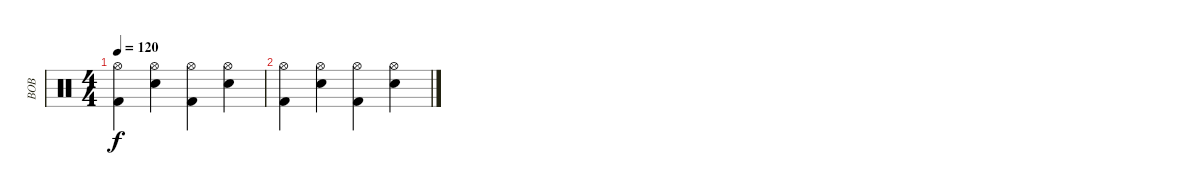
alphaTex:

\track ("BOB" "BOB") {instrument percussion}
\staff {score}
\articulation defaults
\ts (4 4)
\tempo 120
\clef neutral
\ks c
("Hi-Hat (open)" "Kick (hit) 2").4{dy f} ("Hi-Hat (open)" "Electric Snare (hit)").4 ("Hi-Hat (open)" "Kick (hit) 2").4 ("Hi-Hat (open)" "Electric Snare (hit)").4 |
("Hi-Hat (open)" "Kick (hit) 2").4 ("Hi-Hat (open)" "Electric Snare (hit)").4 ("Hi-Hat (open)" "Kick (hit) 2").4 ("Hi-Hat (open)" "Electric Snare (hit)").4
